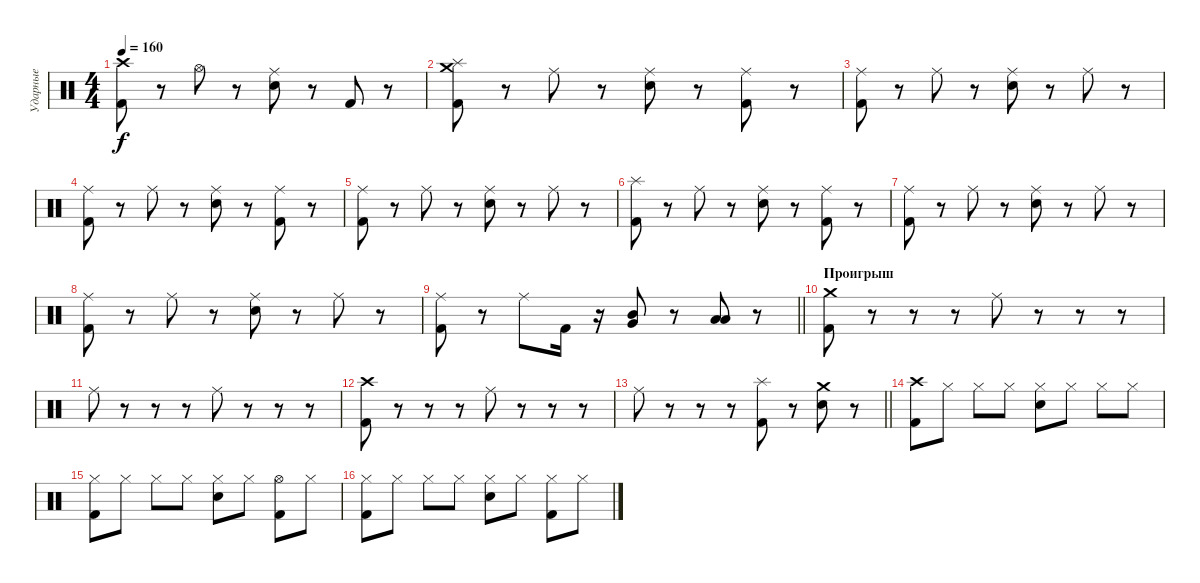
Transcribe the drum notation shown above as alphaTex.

\track ("Ударные" "Ударные") {instrument percussion}
\staff {score}
\articulation defaults
\ts (4 4)
\tempo 160
\clef neutral
\ks c
("Kick (hit) 2" "Crash high (hit)").8{dy f} r.8 "Hi-Hat (open)".8 r.8 ("Electric Snare (hit)" "Ride (middle)").8 r.8 "Kick (hit) 2".8 r.8 |
("Kick (hit) 2" "Crash medium (hit)" "Splash (hit)").8 r.8 "Ride (middle)".8 r.8 ("Electric Snare (hit)" "Ride (middle)").8 r.8 ("Kick (hit) 2" "Ride (middle)").8 r.8 |
("Kick (hit) 2" "Ride (middle)").8 r.8 "Ride (middle)".8 r.8 ("Electric Snare (hit)" "Ride (middle)").8 r.8 "Ride (middle)".8 r.8 |
("Kick (hit) 2" "Ride (middle)").8 r.8 "Ride (middle)".8 r.8 ("Electric Snare (hit)" "Ride (middle)").8 r.8 ("Kick (hit) 2" "Ride (middle)").8 r.8 |
("Kick (hit) 2" "Ride (middle)").8 r.8 "Ride (middle)".8 r.8 ("Electric Snare (hit)" "Ride (middle)").8 r.8 "Ride (middle)".8 r.8 |
("Kick (hit) 2" "Splash (hit)").8 r.8 "Ride (middle)".8 r.8 ("Electric Snare (hit)" "Ride (middle)").8 r.8 ("Kick (hit) 2" "Ride (middle)").8 r.8 |
("Kick (hit) 2" "Ride (middle)").8 r.8 "Ride (middle)".8 r.8 ("Electric Snare (hit)" "Ride (middle)").8 r.8 "Ride (middle)".8 r.8 |
("Kick (hit) 2" "Ride (middle)").8 r.8 "Ride (middle)".8 r.8 ("Electric Snare (hit)" "Ride (middle)").8 r.8 "Ride (middle)".8 r.8 |
\barLineRight lightlight
("Kick (hit) 2" "Ride (middle)").8 r.8 "Ride (middle)".8 "Kick (hit) 2".16 r.16 ("Very Low Tom (hit)" "Mid Tom (hit)").8 r.8 ("Low Floor Tom (hit)" "Low Tom (hit)").8 r.8 |
\section ("" "Проигрыш")
("Kick (hit) 2" "Crash medium (hit)").8 r.8 r.8 r.8 "Ride (middle)".8 r.8 r.8 r.8 |
"Ride (middle)".8 r.8 r.8 r.8 "Ride (middle)".8 r.8 r.8 r.8 |
("Kick (hit) 2" "Crash high (hit)").8 r.8 r.8 r.8 "Ride (middle)".8 r.8 r.8 r.8 |
\barLineRight lightlight "Ride (middle)".8
r.8 r.8 r.8 ("Kick (hit) 2" "Splash (hit)").8 r.8 ("Electric Snare (hit)" "Crash medium (hit)").8 r.8 |
("Kick (hit) 2" "Crash high (hit)").8 "Hi-Hat (closed)".8 "Hi-Hat (closed)".8 "Hi-Hat (closed)".8 ("Electric Snare (hit)" "Hi-Hat (closed)").8 "Hi-Hat (closed)".8 "Hi-Hat (closed)".8 "Hi-Hat (closed)".8 |
("Kick (hit) 2" "Hi-Hat (closed)").8 "Hi-Hat (closed)".8 "Hi-Hat (closed)".8 "Hi-Hat (closed)".8 ("Electric Snare (hit)" "Hi-Hat (closed)").8 "Hi-Hat (closed)".8 ("Kick (hit) 2" "Hi-Hat (open)").8 "Hi-Hat (closed)".8 |
("Kick (hit) 2" "Hi-Hat (closed)").8 "Hi-Hat (closed)".8 "Hi-Hat (closed)".8 "Hi-Hat (closed)".8 ("Electric Snare (hit)" "Hi-Hat (closed)").8 "Hi-Hat (closed)".8 ("Kick (hit) 2" "Hi-Hat (closed)").8 "Hi-Hat (closed)".8
